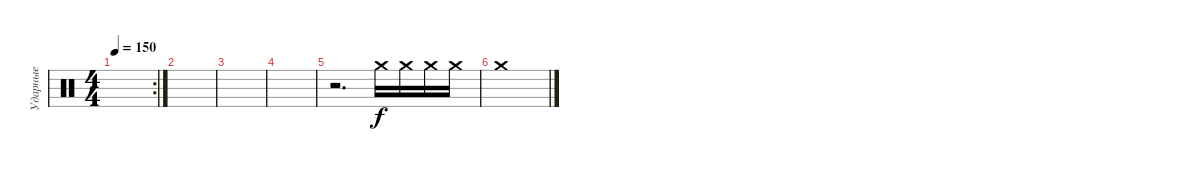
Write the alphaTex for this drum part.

\track ("Ударные" "Ударные") {instrument percussion}
\staff {score}
\articulation defaults
\rc 2
\ts (4 4)
\tempo 150
\clef neutral
\ks c
|
|
|
|
r.2{d} "Crash medium (hit)".16 "Crash medium (hit)".16 "Crash medium (hit)".16 "Crash medium (hit)".16 |
"Crash medium (hit)".1
